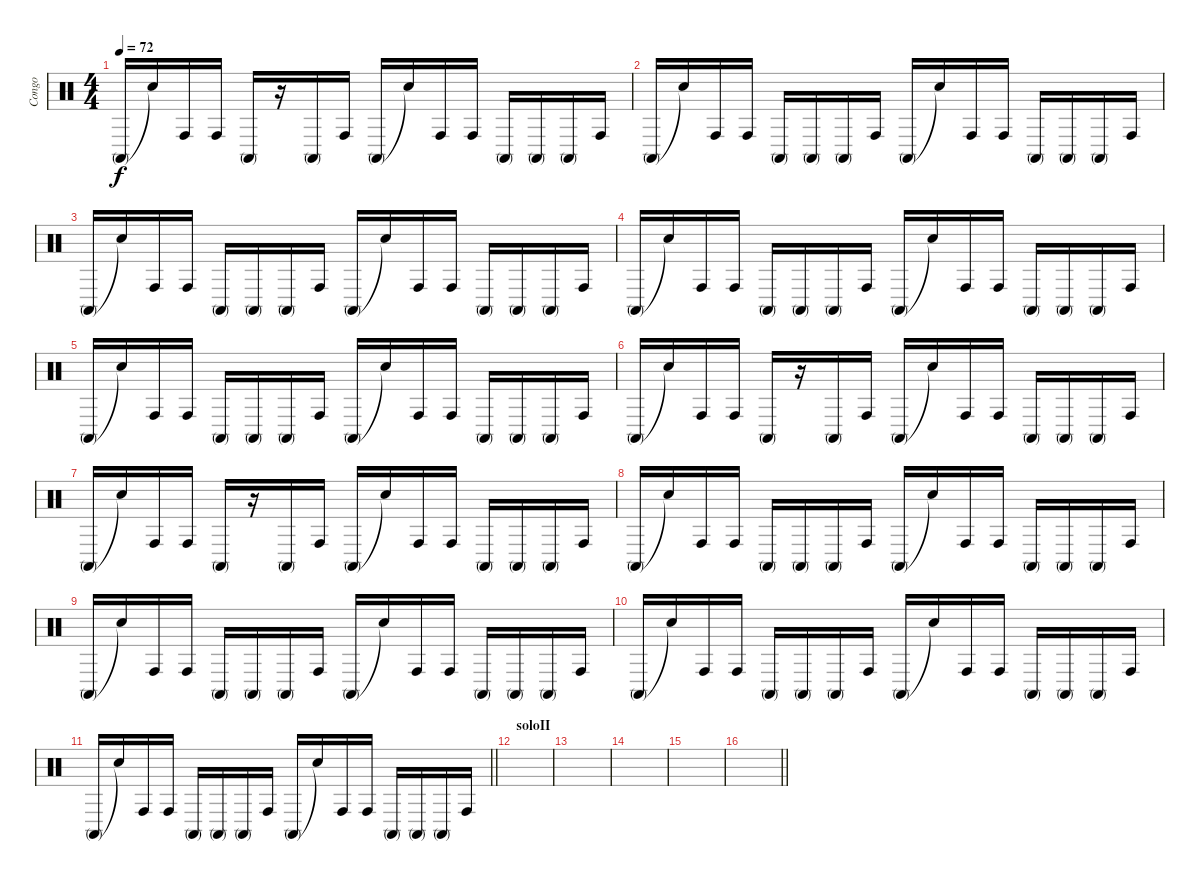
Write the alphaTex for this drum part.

\track ("Congo" "Congo") {instrument percussion}
\staff {score}
\articulation defaults
\ts (4 4)
\tempo 72
\clef neutral
\ks c "Conga high (mute)".16{dy f} "Snare (hit)"{t}.16 "Conga high (hit)".16 "Conga high (hit)".16 "Conga high (mute)".16
r.16 "Conga high (mute)".16 "Conga high (hit)".16 "Conga high (mute)".16 "Snare (hit)"{t}.16 "Conga high (hit)".16 "Conga high (hit)".16 "Conga high (mute)".16 "Conga high (mute)".16 "Conga high (mute)".16 "Conga high (hit)".16 |
"Conga high (mute)".16 "Snare (hit)"{t}.16 "Conga high (hit)".16 "Conga high (hit)".16 "Conga high (mute)".16 "Conga high (mute)".16 "Conga high (mute)".16 "Conga high (hit)".16 "Conga high (mute)".16 "Snare (hit)"{t}.16 "Conga high (hit)".16 "Conga high (hit)".16 "Conga high (mute)".16 "Conga high (mute)".16 "Conga high (mute)".16 "Conga high (hit)".16 |
"Conga high (mute)".16 "Snare (hit)"{t}.16 "Conga high (hit)".16 "Conga high (hit)".16 "Conga high (mute)".16 "Conga high (mute)".16 "Conga high (mute)".16 "Conga high (hit)".16 "Conga high (mute)".16 "Snare (hit)"{t}.16 "Conga high (hit)".16 "Conga high (hit)".16 "Conga high (mute)".16 "Conga high (mute)".16 "Conga high (mute)".16 "Conga high (hit)".16 |
"Conga high (mute)".16 "Snare (hit)"{t}.16 "Conga high (hit)".16 "Conga high (hit)".16 "Conga high (mute)".16 "Conga high (mute)".16 "Conga high (mute)".16 "Conga high (hit)".16 "Conga high (mute)".16 "Snare (hit)"{t}.16 "Conga high (hit)".16 "Conga high (hit)".16 "Conga high (mute)".16 "Conga high (mute)".16 "Conga high (mute)".16 "Conga high (hit)".16 |
"Conga high (mute)".16 "Snare (hit)"{t}.16 "Conga high (hit)".16 "Conga high (hit)".16 "Conga high (mute)".16 "Conga high (mute)".16 "Conga high (mute)".16 "Conga high (hit)".16 "Conga high (mute)".16 "Snare (hit)"{t}.16 "Conga high (hit)".16 "Conga high (hit)".16 "Conga high (mute)".16 "Conga high (mute)".16 "Conga high (mute)".16 "Conga high (hit)".16 |
"Conga high (mute)".16 "Snare (hit)"{t}.16 "Conga high (hit)".16 "Conga high (hit)".16 "Conga high (mute)".16 r.16 "Conga high (mute)".16 "Conga high (hit)".16 "Conga high (mute)".16 "Snare (hit)"{t}.16 "Conga high (hit)".16 "Conga high (hit)".16 "Conga high (mute)".16 "Conga high (mute)".16 "Conga high (mute)".16 "Conga high (hit)".16 |
"Conga high (mute)".16 "Snare (hit)"{t}.16 "Conga high (hit)".16 "Conga high (hit)".16 "Conga high (mute)".16 r.16 "Conga high (mute)".16 "Conga high (hit)".16 "Conga high (mute)".16 "Snare (hit)"{t}.16 "Conga high (hit)".16 "Conga high (hit)".16 "Conga high (mute)".16 "Conga high (mute)".16 "Conga high (mute)".16 "Conga high (hit)".16 |
"Conga high (mute)".16 "Snare (hit)"{t}.16 "Conga high (hit)".16 "Conga high (hit)".16 "Conga high (mute)".16 "Conga high (mute)".16 "Conga high (mute)".16 "Conga high (hit)".16 "Conga high (mute)".16 "Snare (hit)"{t}.16 "Conga high (hit)".16 "Conga high (hit)".16 "Conga high (mute)".16 "Conga high (mute)".16 "Conga high (mute)".16 "Conga high (hit)".16 |
"Conga high (mute)".16 "Snare (hit)"{t}.16 "Conga high (hit)".16 "Conga high (hit)".16 "Conga high (mute)".16 "Conga high (mute)".16 "Conga high (mute)".16 "Conga high (hit)".16 "Conga high (mute)".16 "Snare (hit)"{t}.16 "Conga high (hit)".16 "Conga high (hit)".16 "Conga high (mute)".16 "Conga high (mute)".16 "Conga high (mute)".16 "Conga high (hit)".16 |
"Conga high (mute)".16 "Snare (hit)"{t}.16 "Conga high (hit)".16 "Conga high (hit)".16 "Conga high (mute)".16 "Conga high (mute)".16 "Conga high (mute)".16 "Conga high (hit)".16 "Conga high (mute)".16 "Snare (hit)"{t}.16 "Conga high (hit)".16 "Conga high (hit)".16 "Conga high (mute)".16 "Conga high (mute)".16 "Conga high (mute)".16 "Conga high (hit)".16 |
\barLineRight lightlight "Conga high (mute)".16 "Snare (hit)"{t}.16 "Conga high (hit)".16 "Conga high (hit)".16 "Conga high (mute)".16 "Conga high (mute)".16 "Conga high (mute)".16 "Conga high (hit)".16 "Conga high (mute)".16 "Snare (hit)"{t}.16 "Conga high (hit)".16 "Conga high (hit)".16 "Conga high (mute)".16 "Conga high (mute)".16 "Conga high (mute)".16 "Conga high (hit)".16
|
\section ("" "soloII")
|
|
|
|
\barLineRight lightlight
